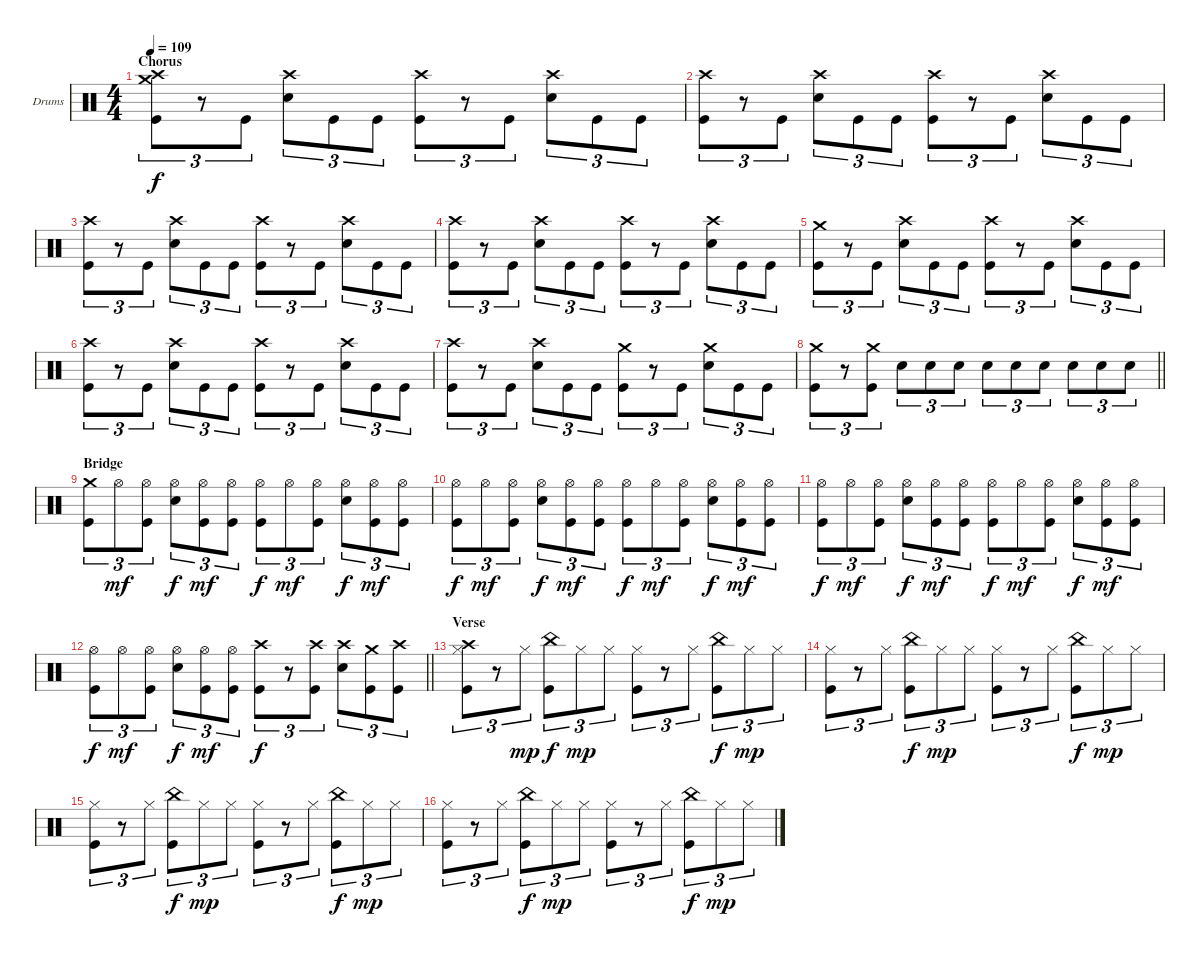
\bracketExtendMode groupsimilarinstruments
\firstSystemTrackNameOrientation horizontal
\otherSystemsTrackNameOrientation horizontal
\track ("Drumkit" "Drums") {instrument percussion}
\staff {score}
\articulation defaults
\ts (4 4)
\section ("" "Chorus")
\tempo 109
\clef neutral
\ks c
("Crash high (hit)" "Crash medium (hit)" "Kick (hit)").8{tu (3 2) dy f} r.8{tu (3 2)} "Kick (hit)".8{tu (3 2)} ("Crash high (hit)" "Snare (hit) 2").8{tu (3 2)} "Kick (hit)".8{tu (3 2)} "Kick (hit)".8{tu (3 2)} ("Crash high (hit)" "Kick (hit)").8{tu (3 2)} r.8{tu (3 2)} "Kick (hit)".8{tu (3 2)} ("Crash high (hit)" "Snare (hit) 2").8{tu (3 2)} "Kick (hit)".8{tu (3 2)} "Kick (hit)".8{tu (3 2)} |
("Crash high (hit)" "Kick (hit)").8{tu (3 2)} r.8{tu (3 2)} "Kick (hit)".8{tu (3 2)} ("Crash high (hit)" "Snare (hit) 2").8{tu (3 2)} "Kick (hit)".8{tu (3 2)} "Kick (hit)".8{tu (3 2)} ("Crash high (hit)" "Kick (hit)").8{tu (3 2)} r.8{tu (3 2)} "Kick (hit)".8{tu (3 2)} ("Crash high (hit)" "Snare (hit) 2").8{tu (3 2)} "Kick (hit)".8{tu (3 2)} "Kick (hit)".8{tu (3 2)} |
("Crash high (hit)" "Kick (hit)").8{tu (3 2)} r.8{tu (3 2)} "Kick (hit)".8{tu (3 2)} ("Crash high (hit)" "Snare (hit) 2").8{tu (3 2)} "Kick (hit)".8{tu (3 2)} "Kick (hit)".8{tu (3 2)} ("Crash high (hit)" "Kick (hit)").8{tu (3 2)} r.8{tu (3 2)} "Kick (hit)".8{tu (3 2)} ("Crash high (hit)" "Snare (hit) 2").8{tu (3 2)} "Kick (hit)".8{tu (3 2)} "Kick (hit)".8{tu (3 2)} |
("Crash high (hit)" "Kick (hit)").8{tu (3 2)} r.8{tu (3 2)} "Kick (hit)".8{tu (3 2)} ("Crash high (hit)" "Snare (hit) 2").8{tu (3 2)} "Kick (hit)".8{tu (3 2)} "Kick (hit)".8{tu (3 2)} ("Crash high (hit)" "Kick (hit)").8{tu (3 2)} r.8{tu (3 2)} "Kick (hit)".8{tu (3 2)} ("Crash high (hit)" "Snare (hit) 2").8{tu (3 2)} "Kick (hit)".8{tu (3 2)} "Kick (hit)".8{tu (3 2)} |
("Crash medium (hit)" "Kick (hit)").8{tu (3 2)} r.8{tu (3 2)} "Kick (hit)".8{tu (3 2)} ("Crash high (hit)" "Snare (hit) 2").8{tu (3 2)} "Kick (hit)".8{tu (3 2)} "Kick (hit)".8{tu (3 2)} ("Crash high (hit)" "Kick (hit)").8{tu (3 2)} r.8{tu (3 2)} "Kick (hit)".8{tu (3 2)} ("Crash high (hit)" "Snare (hit) 2").8{tu (3 2)} "Kick (hit)".8{tu (3 2)} "Kick (hit)".8{tu (3 2)} |
("Crash high (hit)" "Kick (hit)").8{tu (3 2)} r.8{tu (3 2)} "Kick (hit)".8{tu (3 2)} ("Crash high (hit)" "Snare (hit) 2").8{tu (3 2)} "Kick (hit)".8{tu (3 2)} "Kick (hit)".8{tu (3 2)} ("Crash high (hit)" "Kick (hit)").8{tu (3 2)} r.8{tu (3 2)} "Kick (hit)".8{tu (3 2)} ("Crash high (hit)" "Snare (hit) 2").8{tu (3 2)} "Kick (hit)".8{tu (3 2)} "Kick (hit)".8{tu (3 2)} |
("Crash high (hit)" "Kick (hit)").8{tu (3 2)} r.8{tu (3 2)} "Kick (hit)".8{tu (3 2)} ("Crash high (hit)" "Snare (hit) 2").8{tu (3 2)} "Kick (hit)".8{tu (3 2)} "Kick (hit)".8{tu (3 2)} ("Crash medium (hit)" "Kick (hit)").8{tu (3 2)} r.8{tu (3 2)} "Kick (hit)".8{tu (3 2)} ("Crash medium (hit)" "Snare (hit) 2").8{tu (3 2)} "Kick (hit)".8{tu (3 2)} "Kick (hit)".8{tu (3 2)} |
\barLineRight lightlight
("Crash medium (hit)" "Kick (hit)").8{tu (3 2)} r.8{tu (3 2)} ("Crash medium (hit)" "Kick (hit)").8{tu (3 2)} "Snare (hit) 2".8{tu (3 2)} "Snare (hit) 2".8{tu (3 2)} "Snare (hit) 2".8{tu (3 2)} "Snare (hit) 2".8{tu (3 2)} "Snare (hit) 2".8{tu (3 2)} "Snare (hit) 2".8{tu (3 2)} "Snare (hit) 2".8{tu (3 2)} "Snare (hit) 2".8{tu (3 2)} "Snare (hit) 2".8{tu (3 2)} |
\section ("" "Bridge")
("Crash medium (hit)" "Kick (hit)").8{tu (3 2)} "Hi-Hat (open)".8{tu (3 2) dy mf} ("Hi-Hat (open)" "Kick (hit)").8{tu (3 2)} ("Hi-Hat (open)" "Snare (hit) 2").8{tu (3 2) dy f} ("Hi-Hat (open)" "Kick (hit)").8{tu (3 2) dy mf} ("Hi-Hat (open)" "Kick (hit)").8{tu (3 2)} ("Hi-Hat (open)" "Kick (hit)").8{tu (3 2) dy f} "Hi-Hat (open)".8{tu (3 2) dy mf} ("Hi-Hat (open)" "Kick (hit)").8{tu (3 2)} ("Hi-Hat (open)" "Snare (hit) 2").8{tu (3 2) dy f} ("Hi-Hat (open)" "Kick (hit)").8{tu (3 2) dy mf} ("Hi-Hat (open)" "Kick (hit)").8{tu (3 2)} |
("Hi-Hat (open)" "Kick (hit)").8{tu (3 2) dy f} "Hi-Hat (open)".8{tu (3 2) dy mf} ("Hi-Hat (open)" "Kick (hit)").8{tu (3 2)} ("Hi-Hat (open)" "Snare (hit) 2").8{tu (3 2) dy f} ("Hi-Hat (open)" "Kick (hit)").8{tu (3 2) dy mf} ("Hi-Hat (open)" "Kick (hit)").8{tu (3 2)} ("Hi-Hat (open)" "Kick (hit)").8{tu (3 2) dy f} "Hi-Hat (open)".8{tu (3 2) dy mf} ("Hi-Hat (open)" "Kick (hit)").8{tu (3 2)} ("Hi-Hat (open)" "Snare (hit) 2").8{tu (3 2) dy f} ("Hi-Hat (open)" "Kick (hit)").8{tu (3 2) dy mf} ("Hi-Hat (open)" "Kick (hit)").8{tu (3 2)} |
("Hi-Hat (open)" "Kick (hit)").8{tu (3 2) dy f} "Hi-Hat (open)".8{tu (3 2) dy mf} ("Hi-Hat (open)" "Kick (hit)").8{tu (3 2)} ("Hi-Hat (open)" "Snare (hit) 2").8{tu (3 2) dy f} ("Hi-Hat (open)" "Kick (hit)").8{tu (3 2) dy mf} ("Hi-Hat (open)" "Kick (hit)").8{tu (3 2)} ("Hi-Hat (open)" "Kick (hit)").8{tu (3 2) dy f} "Hi-Hat (open)".8{tu (3 2) dy mf} ("Hi-Hat (open)" "Kick (hit)").8{tu (3 2)} ("Hi-Hat (open)" "Snare (hit) 2").8{tu (3 2) dy f} ("Hi-Hat (open)" "Kick (hit)").8{tu (3 2) dy mf} ("Hi-Hat (open)" "Kick (hit)").8{tu (3 2)} |
\barLineRight lightlight
("Hi-Hat (open)" "Kick (hit)").8{tu (3 2) dy f} "Hi-Hat (open)".8{tu (3 2) dy mf} ("Hi-Hat (open)" "Kick (hit)").8{tu (3 2)} ("Hi-Hat (open)" "Snare (hit) 2").8{tu (3 2) dy f} ("Hi-Hat (open)" "Kick (hit)").8{tu (3 2) dy mf} ("Hi-Hat (open)" "Kick (hit)").8{tu (3 2)} ("Crash high (hit)" "Kick (hit)").8{tu (3 2) dy f} r.8{tu (3 2)} ("Crash high (hit)" "Kick (hit)").8{tu (3 2)} ("Crash high (hit)" "Snare (hit) 2").8{tu (3 2)} ("Crash medium (hit)" "Kick (hit)").8{tu (3 2)} ("Crash high (hit)" "Kick (hit)").8{tu (3 2)} |
\section ("" "Verse")
("Crash high (hit)" "Hi-Hat (closed)" "Kick (hit)").8{tu (3 2)} r.8{tu (3 2)} "Hi-Hat (closed)".8{tu (3 2) dy mp} ("China (hit)" "Kick (hit)").8{tu (3 2) dy f} "Hi-Hat (closed)".8{tu (3 2) dy mp} "Hi-Hat (closed)".8{tu (3 2)} ("Hi-Hat (closed)" "Kick (hit)").8{tu (3 2)} r.8{tu (3 2)} "Hi-Hat (closed)".8{tu (3 2)} ("China (hit)" "Kick (hit)").8{tu (3 2) dy f} "Hi-Hat (closed)".8{tu (3 2) dy mp} "Hi-Hat (closed)".8{tu (3 2)} |
("Hi-Hat (closed)" "Kick (hit)").8{tu (3 2)} r.8{tu (3 2)} "Hi-Hat (closed)".8{tu (3 2)} ("China (hit)" "Kick (hit)").8{tu (3 2) dy f} "Hi-Hat (closed)".8{tu (3 2) dy mp} "Hi-Hat (closed)".8{tu (3 2)} ("Hi-Hat (closed)" "Kick (hit)").8{tu (3 2)} r.8{tu (3 2)} "Hi-Hat (closed)".8{tu (3 2)} ("China (hit)" "Kick (hit)").8{tu (3 2) dy f} "Hi-Hat (closed)".8{tu (3 2) dy mp} "Hi-Hat (closed)".8{tu (3 2)} |
("Hi-Hat (closed)" "Kick (hit)").8{tu (3 2)} r.8{tu (3 2)} "Hi-Hat (closed)".8{tu (3 2)} ("China (hit)" "Kick (hit)").8{tu (3 2) dy f} "Hi-Hat (closed)".8{tu (3 2) dy mp} "Hi-Hat (closed)".8{tu (3 2)} ("Hi-Hat (closed)" "Kick (hit)").8{tu (3 2)} r.8{tu (3 2)} "Hi-Hat (closed)".8{tu (3 2)} ("China (hit)" "Kick (hit)").8{tu (3 2) dy f} "Hi-Hat (closed)".8{tu (3 2) dy mp} "Hi-Hat (closed)".8{tu (3 2)} |
("Hi-Hat (closed)" "Kick (hit)").8{tu (3 2)} r.8{tu (3 2)} "Hi-Hat (closed)".8{tu (3 2)} ("China (hit)" "Kick (hit)").8{tu (3 2) dy f} "Hi-Hat (closed)".8{tu (3 2) dy mp} "Hi-Hat (closed)".8{tu (3 2)} ("Hi-Hat (closed)" "Kick (hit)").8{tu (3 2)} r.8{tu (3 2)} "Hi-Hat (closed)".8{tu (3 2)} ("China (hit)" "Kick (hit)").8{tu (3 2) dy f} "Hi-Hat (closed)".8{tu (3 2) dy mp} "Hi-Hat (closed)".8{tu (3 2)}
